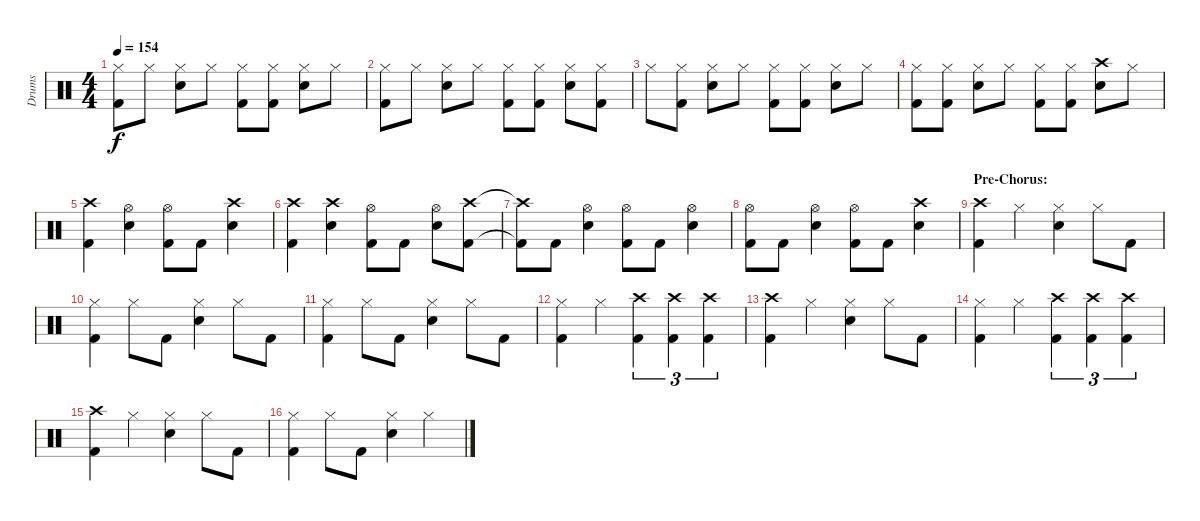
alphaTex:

\track ("Drums" "Drums") {instrument percussion}
\staff {score}
\articulation defaults
\ts (4 4)
\tempo 154
\clef neutral
\ks c
("Hi-Hat (closed)" "Kick (hit) 2").8{dy f} "Hi-Hat (closed)".8 ("Hi-Hat (closed)" "Snare (hit) 2").8 "Hi-Hat (closed)".8 ("Hi-Hat (closed)" "Kick (hit) 2").8 ("Hi-Hat (closed)" "Kick (hit) 2").8 ("Hi-Hat (closed)" "Snare (hit) 2").8 "Hi-Hat (closed)".8 |
("Hi-Hat (closed)" "Kick (hit) 2").8 "Hi-Hat (closed)".8 ("Hi-Hat (closed)" "Snare (hit) 2").8 "Hi-Hat (closed)".8 ("Hi-Hat (closed)" "Kick (hit) 2").8 ("Hi-Hat (closed)" "Kick (hit) 2").8 ("Hi-Hat (closed)" "Snare (hit) 2").8 ("Hi-Hat (closed)" "Kick (hit) 2").8 |
"Hi-Hat (closed)".8 ("Hi-Hat (closed)" "Kick (hit) 2").8 ("Hi-Hat (closed)" "Snare (hit) 2").8 "Hi-Hat (closed)".8 ("Hi-Hat (closed)" "Kick (hit) 2").8 ("Hi-Hat (closed)" "Kick (hit) 2").8 ("Hi-Hat (closed)" "Snare (hit) 2").8 "Hi-Hat (closed)".8 |
("Hi-Hat (closed)" "Kick (hit) 2").8 ("Hi-Hat (closed)" "Kick (hit) 2").8 ("Hi-Hat (closed)" "Snare (hit) 2").8 "Hi-Hat (closed)".8 ("Hi-Hat (closed)" "Kick (hit) 2").8 ("Hi-Hat (closed)" "Kick (hit) 2").8 ("Crash high (hit)" "Snare (hit) 2").8 "Hi-Hat (closed)".8 |
("Crash high (hit)" "Kick (hit) 2").4 ("Hi-Hat (open)" "Snare (hit) 2").4 ("Hi-Hat (open)" "Kick (hit) 2").8 "Kick (hit) 2".8 ("Crash high (hit)" "Snare (hit) 2").4 |
("Crash high (hit)" "Kick (hit) 2").4 ("Crash high (hit)" "Snare (hit) 2").4 ("Hi-Hat (open)" "Kick (hit) 2").8 "Kick (hit) 2".8 ("Hi-Hat (open)" "Snare (hit) 2").8 ("Crash high (hit)" "Kick (hit) 2").8 |
("Crash high (hit)"{t} "Kick (hit) 2"{t}).8 "Kick (hit) 2".8 ("Hi-Hat (open)" "Snare (hit) 2").4 ("Hi-Hat (open)" "Kick (hit) 2").8 "Kick (hit) 2".8 ("Hi-Hat (open)" "Snare (hit) 2").4 |
("Hi-Hat (open)" "Kick (hit) 2").8 "Kick (hit) 2".8 ("Hi-Hat (open)" "Snare (hit) 2").4 ("Hi-Hat (open)" "Kick (hit) 2").8 "Kick (hit) 2".8 ("Crash high (hit)" "Snare (hit) 2").4 |
\section ("" "Pre-Chorus:")
("Crash high (hit)" "Kick (hit) 2").4 "Hi-Hat (closed)".4 ("Hi-Hat (closed)" "Snare (hit) 2").4 "Hi-Hat (closed)".8 "Kick (hit) 2".8 |
("Hi-Hat (closed)" "Kick (hit) 2").4 "Hi-Hat (closed)".8 "Kick (hit) 2".8 ("Hi-Hat (closed)" "Snare (hit) 2").4 "Hi-Hat (closed)".8 "Kick (hit) 2".8 |
("Hi-Hat (closed)" "Kick (hit) 2").4 "Hi-Hat (closed)".8 "Kick (hit) 2".8 ("Hi-Hat (closed)" "Snare (hit) 2").4 "Hi-Hat (closed)".8 "Kick (hit) 2".8 |
("Hi-Hat (closed)" "Kick (hit) 2").4 "Hi-Hat (closed)".4 ("Crash high (hit)" "Kick (hit) 2").4{tu (3 2)} ("Crash high (hit)" "Kick (hit) 2").4{tu (3 2)} ("Crash high (hit)" "Kick (hit) 2").4{tu (3 2)} |
("Crash high (hit)" "Kick (hit) 2").4 "Hi-Hat (closed)".4 ("Hi-Hat (closed)" "Snare (hit) 2").4 "Hi-Hat (closed)".8 "Kick (hit) 2".8 |
("Hi-Hat (closed)" "Kick (hit) 2").4 "Hi-Hat (closed)".4 ("Crash high (hit)" "Kick (hit) 2").4{tu (3 2)} ("Crash high (hit)" "Kick (hit) 2").4{tu (3 2)} ("Crash high (hit)" "Kick (hit) 2").4{tu (3 2)} |
("Crash high (hit)" "Kick (hit) 2").4 "Hi-Hat (closed)".4 ("Hi-Hat (closed)" "Snare (hit) 2").4 "Hi-Hat (closed)".8 "Kick (hit) 2".8 |
("Hi-Hat (closed)" "Kick (hit) 2").4 "Hi-Hat (closed)".8 "Kick (hit) 2".8 ("Hi-Hat (closed)" "Snare (hit) 2").4 "Hi-Hat (closed)".4
